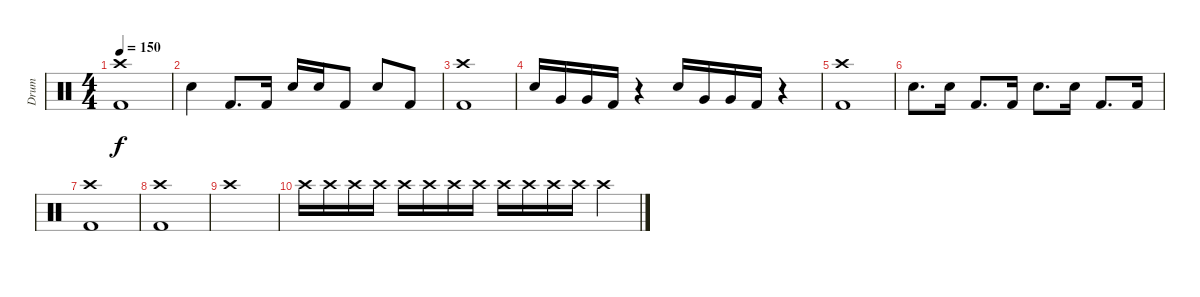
\track ("Drum" "Drum") {instrument percussion}
\staff {score}
\articulation defaults
\ts (4 4)
\tempo 150
\clef neutral
\ks c
("Crash high (hit)" "Kick (hit) 2").1{dy f} |
"Snare (hit) 2".4 "Kick (hit) 2".8{d} "Kick (hit) 2".16 "Snare (hit) 2".16 "Snare (hit) 2".16 "Kick (hit) 2".8 "Snare (hit) 2".8 "Kick (hit) 2".8 |
("Crash high (hit)" "Kick (hit) 2").1 |
"Snare (hit) 2".16 "Very Low Tom (hit)".16 "Very Low Tom (hit)".16 "Kick (hit) 2".16 r.4 "Snare (hit) 2".16 "Very Low Tom (hit)".16 "Very Low Tom (hit)".16 "Kick (hit) 2".16 r.4 |
("Crash high (hit)" "Kick (hit) 2").1 |
"Snare (hit) 2".8{d} "Snare (hit) 2".16 "Kick (hit) 2".8{d} "Kick (hit) 2".16 "Snare (hit) 2".8{d} "Snare (hit) 2".16 "Kick (hit) 2".8{d} "Kick (hit) 2".16 |
("Crash high (hit)" "Kick (hit) 2").1 |
("Crash high (hit)" "Kick (hit) 2").1 |
"Crash high (hit)".1 |
"Crash high (hit)".16 "Crash high (hit)".16 "Crash high (hit)".16 "Crash high (hit)".16 "Crash high (hit)".16 "Crash high (hit)".16 "Crash high (hit)".16 "Crash high (hit)".16 "Crash high (hit)".16 "Crash high (hit)".16 "Crash high (hit)".16 "Crash high (hit)".16 "Crash high (hit)".4
